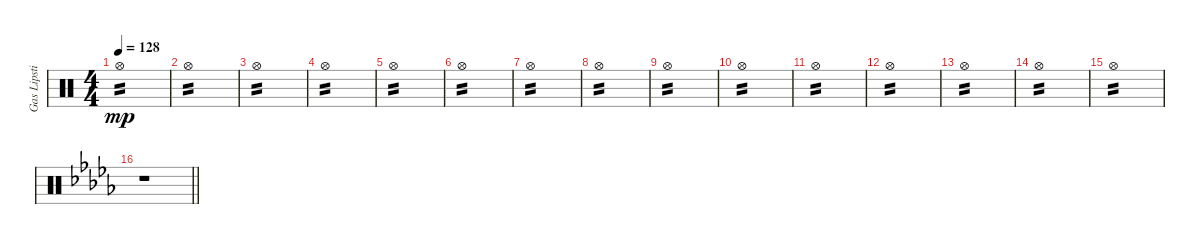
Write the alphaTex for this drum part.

\track ("Gas Lipstick (Drums)" "Gas Lipsti") {instrument percussion}
\staff {score}
\articulation defaults
\ts (4 4)
\tempo 128
\clef neutral
\ks c "Hi-Hat (open)".1{tp 2 dy mp}
|
"Hi-Hat (open)".1{tp 2} |
"Hi-Hat (open)".1{tp 2} |
"Hi-Hat (open)".1{tp 2} |
"Hi-Hat (open)".1{tp 2} |
"Hi-Hat (open)".1{tp 2} |
"Hi-Hat (open)".1{tp 2} |
"Hi-Hat (open)".1{tp 2} |
"Hi-Hat (open)".1{tp 2} |
"Hi-Hat (open)".1{tp 2} |
"Hi-Hat (open)".1{tp 2} |
"Hi-Hat (open)".1{tp 2} |
"Hi-Hat (open)".1{tp 2} |
"Hi-Hat (open)".1{tp 2} |
"Hi-Hat (open)".1{tp 2} |
\barLineRight lightlight
\ks db
r.1
